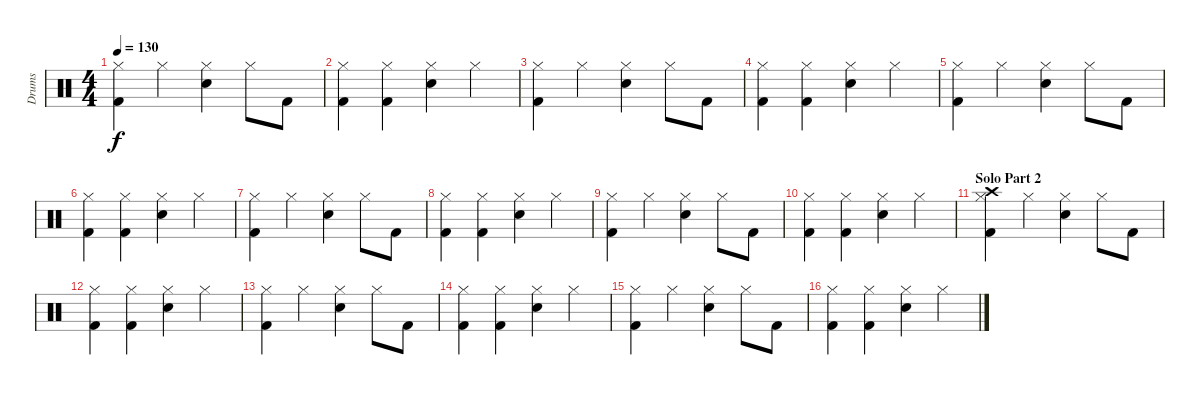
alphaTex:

\track ("Drums" "Drums") {instrument percussion}
\staff {score}
\articulation defaults
\ts (4 4)
\tempo 130
\clef neutral
\ks c
("Hi-Hat (closed)" "Kick (hit) 2").4{dy f} "Hi-Hat (closed)".4 ("Hi-Hat (closed)" "Snare (hit) 2").4 "Hi-Hat (closed)".8 "Kick (hit) 2".8 |
("Hi-Hat (closed)" "Kick (hit) 2").4 ("Hi-Hat (closed)" "Kick (hit) 2").4 ("Hi-Hat (closed)" "Snare (hit) 2").4 "Hi-Hat (closed)".4 |
("Hi-Hat (closed)" "Kick (hit) 2").4 "Hi-Hat (closed)".4 ("Hi-Hat (closed)" "Snare (hit) 2").4 "Hi-Hat (closed)".8 "Kick (hit) 2".8 |
("Hi-Hat (closed)" "Kick (hit) 2").4 ("Hi-Hat (closed)" "Kick (hit) 2").4 ("Hi-Hat (closed)" "Snare (hit) 2").4 "Hi-Hat (closed)".4 |
("Hi-Hat (closed)" "Kick (hit) 2").4 "Hi-Hat (closed)".4 ("Hi-Hat (closed)" "Snare (hit) 2").4 "Hi-Hat (closed)".8 "Kick (hit) 2".8 |
("Hi-Hat (closed)" "Kick (hit) 2").4 ("Hi-Hat (closed)" "Kick (hit) 2").4 ("Hi-Hat (closed)" "Snare (hit) 2").4 "Hi-Hat (closed)".4 |
("Hi-Hat (closed)" "Kick (hit) 2").4 "Hi-Hat (closed)".4 ("Hi-Hat (closed)" "Snare (hit) 2").4 "Hi-Hat (closed)".8 "Kick (hit) 2".8 |
("Hi-Hat (closed)" "Kick (hit) 2").4 ("Hi-Hat (closed)" "Kick (hit) 2").4 ("Hi-Hat (closed)" "Snare (hit) 2").4 "Hi-Hat (closed)".4 |
("Hi-Hat (closed)" "Kick (hit) 2").4 "Hi-Hat (closed)".4 ("Hi-Hat (closed)" "Snare (hit) 2").4 "Hi-Hat (closed)".8 "Kick (hit) 2".8 |
("Hi-Hat (closed)" "Kick (hit) 2").4 ("Hi-Hat (closed)" "Kick (hit) 2").4 ("Hi-Hat (closed)" "Snare (hit) 2").4 "Hi-Hat (closed)".4 |
\section ("" "Solo Part 2")
("Crash high (hit)" "Hi-Hat (closed)" "Kick (hit) 2").4 "Hi-Hat (closed)".4 ("Hi-Hat (closed)" "Snare (hit) 2").4 "Hi-Hat (closed)".8 "Kick (hit) 2".8 |
("Hi-Hat (closed)" "Kick (hit) 2").4 ("Hi-Hat (closed)" "Kick (hit) 2").4 ("Hi-Hat (closed)" "Snare (hit) 2").4 "Hi-Hat (closed)".4 |
("Hi-Hat (closed)" "Kick (hit) 2").4 "Hi-Hat (closed)".4 ("Hi-Hat (closed)" "Snare (hit) 2").4 "Hi-Hat (closed)".8 "Kick (hit) 2".8 |
("Hi-Hat (closed)" "Kick (hit) 2").4 ("Hi-Hat (closed)" "Kick (hit) 2").4 ("Hi-Hat (closed)" "Snare (hit) 2").4 "Hi-Hat (closed)".4 |
("Hi-Hat (closed)" "Kick (hit) 2").4 "Hi-Hat (closed)".4 ("Hi-Hat (closed)" "Snare (hit) 2").4 "Hi-Hat (closed)".8 "Kick (hit) 2".8 |
("Hi-Hat (closed)" "Kick (hit) 2").4 ("Hi-Hat (closed)" "Kick (hit) 2").4 ("Hi-Hat (closed)" "Snare (hit) 2").4 "Hi-Hat (closed)".4
